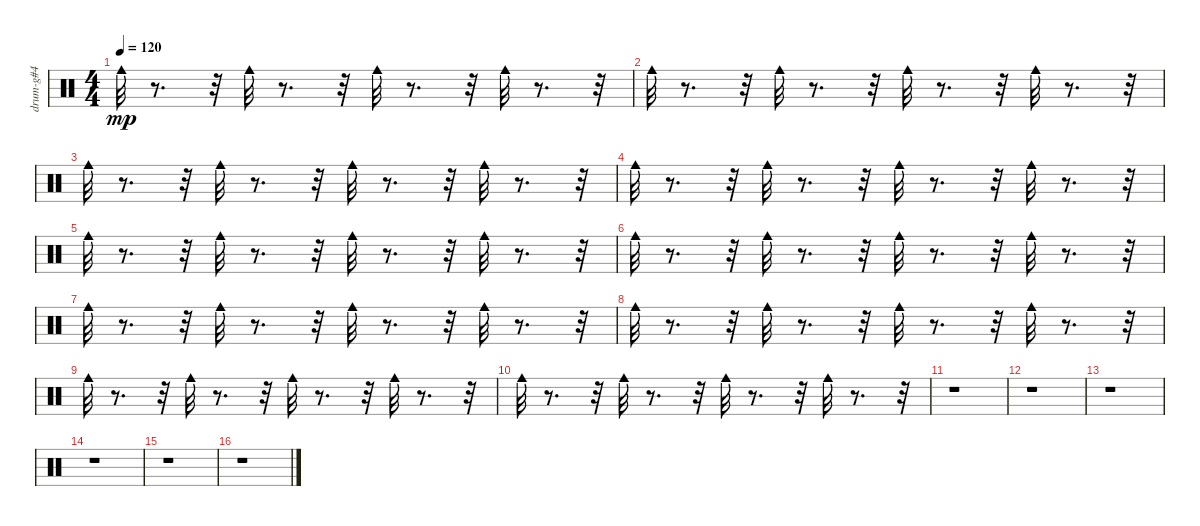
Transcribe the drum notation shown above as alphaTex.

\track ("drum-g#4" "drum-g#4") {instrument percussion}
\staff {score}
\articulation defaults
\ts (4 4)
\tempo 120
\clef neutral
\ks c "Cowbell medium (hit)".32{dy mp}
r.8{d} r.32 "Cowbell medium (hit)".32 r.8{d} r.32 "Cowbell medium (hit)".32 r.8{d} r.32 "Cowbell medium (hit)".32 r.8{d} r.32 |
"Cowbell medium (hit)".32 r.8{d} r.32 "Cowbell medium (hit)".32 r.8{d} r.32 "Cowbell medium (hit)".32 r.8{d} r.32 "Cowbell medium (hit)".32 r.8{d} r.32 |
"Cowbell medium (hit)".32 r.8{d} r.32 "Cowbell medium (hit)".32 r.8{d} r.32 "Cowbell medium (hit)".32 r.8{d} r.32 "Cowbell medium (hit)".32 r.8{d} r.32 |
"Cowbell medium (hit)".32 r.8{d} r.32 "Cowbell medium (hit)".32 r.8{d} r.32 "Cowbell medium (hit)".32 r.8{d} r.32 "Cowbell medium (hit)".32 r.8{d} r.32 |
"Cowbell medium (hit)".32 r.8{d} r.32 "Cowbell medium (hit)".32 r.8{d} r.32 "Cowbell medium (hit)".32 r.8{d} r.32 "Cowbell medium (hit)".32 r.8{d} r.32 |
"Cowbell medium (hit)".32 r.8{d} r.32 "Cowbell medium (hit)".32 r.8{d} r.32 "Cowbell medium (hit)".32 r.8{d} r.32 "Cowbell medium (hit)".32 r.8{d} r.32 |
"Cowbell medium (hit)".32 r.8{d} r.32 "Cowbell medium (hit)".32 r.8{d} r.32 "Cowbell medium (hit)".32 r.8{d} r.32 "Cowbell medium (hit)".32 r.8{d} r.32 |
"Cowbell medium (hit)".32 r.8{d} r.32 "Cowbell medium (hit)".32 r.8{d} r.32 "Cowbell medium (hit)".32 r.8{d} r.32 "Cowbell medium (hit)".32 r.8{d} r.32 |
"Cowbell medium (hit)".32 r.8{d} r.32 "Cowbell medium (hit)".32 r.8{d} r.32 "Cowbell medium (hit)".32 r.8{d} r.32 "Cowbell medium (hit)".32 r.8{d} r.32 |
"Cowbell medium (hit)".32 r.8{d} r.32 "Cowbell medium (hit)".32 r.8{d} r.32 "Cowbell medium (hit)".32 r.8{d} r.32 "Cowbell medium (hit)".32 r.8{d} r.32 |
r.1 |
r.1 |
r.1 |
r.1 |
r.1 |
r.1
